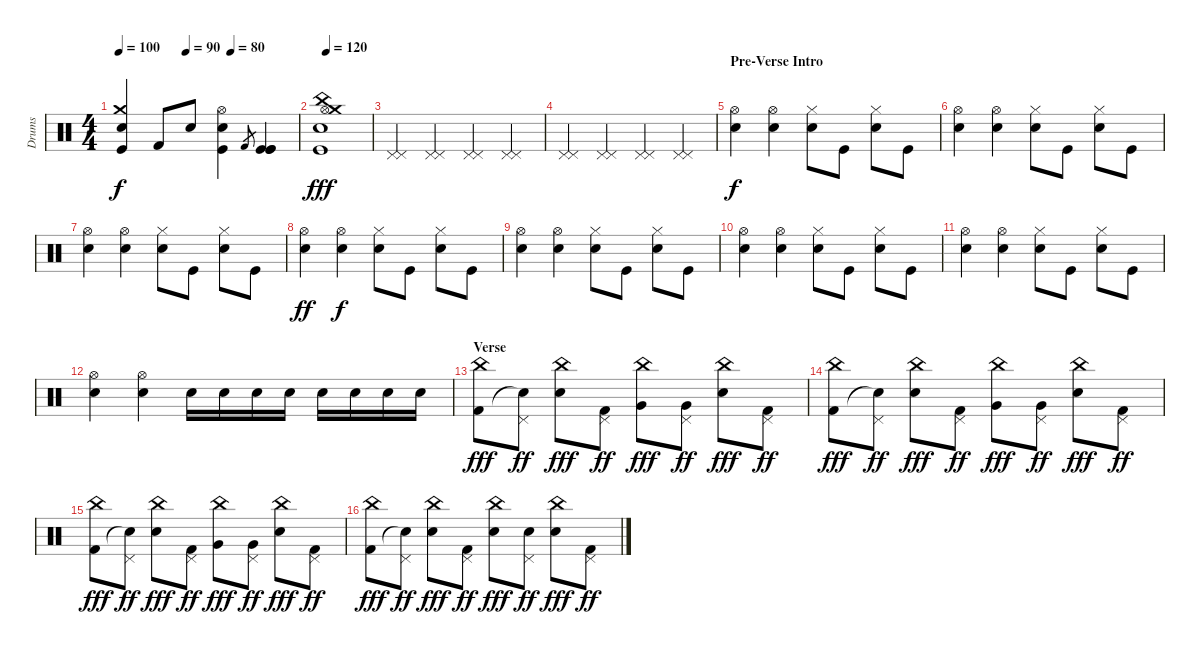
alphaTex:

\track ("Drums" "Drums") {instrument percussion}
\staff {score}
\articulation defaults
\ts (4 4)
\tempo 100
\tempo (90 0.375)
\tempo (80 0.625)
\clef neutral
\ks c
("Kick (hit)" "Crash medium (hit)" "Snare (hit) 2").4{dy f} "Kick (hit) 2".8 "Snare (hit) 2".8 ("Kick (hit)" "Hi-Hat (open)" "Snare (hit) 2").4 "Kick (hit) 2".8{gr} ("Kick (hit)" "Kick (hit)" "Kick (hit)").4 |
\tempo 120
("Hi-Hat (open)" "Kick (hit)" "Crash medium (hit)" "China (hit)" "Electric Snare (hit)").1{dy fff} |
("Pedal Hi-Hat (hit)" "Pedal Hi-Hat (hit)").4 ("Pedal Hi-Hat (hit)" "Pedal Hi-Hat (hit)").4 ("Pedal Hi-Hat (hit)" "Pedal Hi-Hat (hit)").4 ("Pedal Hi-Hat (hit)" "Pedal Hi-Hat (hit)").4 |
("Pedal Hi-Hat (hit)" "Pedal Hi-Hat (hit)").4 ("Pedal Hi-Hat (hit)" "Pedal Hi-Hat (hit)").4 ("Pedal Hi-Hat (hit)" "Pedal Hi-Hat (hit)").4 ("Pedal Hi-Hat (hit)" "Pedal Hi-Hat (hit)").4 |
\section ("" "Pre-Verse Intro")
("Hi-Hat (open)" "Electric Snare (hit)").4{dy f} ("Hi-Hat (open)" "Electric Snare (hit)").4 ("Hi-Hat (closed)" "Electric Snare (hit)").8 "Kick (hit)".8 ("Hi-Hat (closed)" "Electric Snare (hit)").8 "Kick (hit)".8 |
("Hi-Hat (open)" "Electric Snare (hit)").4 ("Hi-Hat (open)" "Electric Snare (hit)").4 ("Hi-Hat (closed)" "Electric Snare (hit)").8 "Kick (hit)".8 ("Hi-Hat (closed)" "Electric Snare (hit)").8 "Kick (hit)".8 |
("Hi-Hat (open)" "Electric Snare (hit)").4 ("Hi-Hat (open)" "Electric Snare (hit)").4 ("Hi-Hat (closed)" "Electric Snare (hit)").8 "Kick (hit)".8 ("Hi-Hat (closed)" "Electric Snare (hit)").8 "Kick (hit)".8 |
("Hi-Hat (open)" "Electric Snare (hit)").4{dy ff} ("Hi-Hat (open)" "Electric Snare (hit)").4{dy f} ("Hi-Hat (closed)" "Electric Snare (hit)").8 "Kick (hit)".8 ("Hi-Hat (closed)" "Electric Snare (hit)").8 "Kick (hit)".8 |
("Hi-Hat (open)" "Electric Snare (hit)").4 ("Hi-Hat (open)" "Electric Snare (hit)").4 ("Hi-Hat (closed)" "Electric Snare (hit)").8 "Kick (hit)".8 ("Hi-Hat (closed)" "Electric Snare (hit)").8 "Kick (hit)".8 |
("Hi-Hat (open)" "Electric Snare (hit)").4 ("Hi-Hat (open)" "Electric Snare (hit)").4 ("Hi-Hat (closed)" "Electric Snare (hit)").8 "Kick (hit)".8 ("Hi-Hat (closed)" "Electric Snare (hit)").8 "Kick (hit)".8 |
("Hi-Hat (open)" "Electric Snare (hit)").4 ("Hi-Hat (open)" "Electric Snare (hit)").4 ("Hi-Hat (closed)" "Electric Snare (hit)").8 "Kick (hit)".8 ("Hi-Hat (closed)" "Electric Snare (hit)").8 "Kick (hit)".8 |
("Hi-Hat (open)" "Electric Snare (hit)").4 ("Hi-Hat (open)" "Electric Snare (hit)").4 "Electric Snare (hit)".16 "Snare (hit) 2".16 "Electric Snare (hit)".16 "Snare (hit) 2".16 "Electric Snare (hit)".16 "Snare (hit) 2".16 "Electric Snare (hit)".16 "Snare (hit) 2".16 |
\section ("" "Verse")
("China (hit)" "Kick (hit) 2").8{dy fff} ("Pedal Hi-Hat (hit)" "Snare (hit) 2"{t}).8{dy ff} ("China (hit)" "Snare (hit) 2").8{dy fff} ("Pedal Hi-Hat (hit)" "Kick (hit) 2").8{dy ff} ("China (hit)" "Very Low Tom (hit)").8{dy fff} ("Pedal Hi-Hat (hit)" "Very Low Tom (hit)").8{dy ff} ("China (hit)" "Snare (hit) 2").8{dy fff} ("Pedal Hi-Hat (hit)" "Kick (hit) 2").8{dy ff} |
("China (hit)" "Kick (hit) 2").8{dy fff} ("Pedal Hi-Hat (hit)" "Snare (hit) 2"{t}).8{dy ff} ("China (hit)" "Snare (hit) 2").8{dy fff} ("Pedal Hi-Hat (hit)" "Kick (hit) 2").8{dy ff} ("China (hit)" "Very Low Tom (hit)").8{dy fff} ("Pedal Hi-Hat (hit)" "Very Low Tom (hit)").8{dy ff} ("China (hit)" "Snare (hit) 2").8{dy fff} ("Pedal Hi-Hat (hit)" "Kick (hit) 2").8{dy ff} |
("China (hit)" "Kick (hit) 2").8{dy fff} ("Pedal Hi-Hat (hit)" "Snare (hit) 2"{t}).8{dy ff} ("China (hit)" "Snare (hit) 2").8{dy fff} ("Pedal Hi-Hat (hit)" "Kick (hit) 2").8{dy ff} ("China (hit)" "Very Low Tom (hit)").8{dy fff} ("Pedal Hi-Hat (hit)" "Very Low Tom (hit)").8{dy ff} ("China (hit)" "Snare (hit) 2").8{dy fff} ("Pedal Hi-Hat (hit)" "Kick (hit) 2").8{dy ff} |
("China (hit)" "Kick (hit) 2").8{dy fff} ("Pedal Hi-Hat (hit)" "Snare (hit) 2"{t}).8{dy ff} ("China (hit)" "Snare (hit) 2").8{dy fff} ("Pedal Hi-Hat (hit)" "Kick (hit) 2").8{dy ff} ("China (hit)" "Snare (hit) 2").8{dy fff} ("Pedal Hi-Hat (hit)" "Snare (hit) 2").8{dy ff} ("China (hit)" "Snare (hit) 2").8{dy fff} ("Pedal Hi-Hat (hit)" "Kick (hit) 2").8{dy ff}
